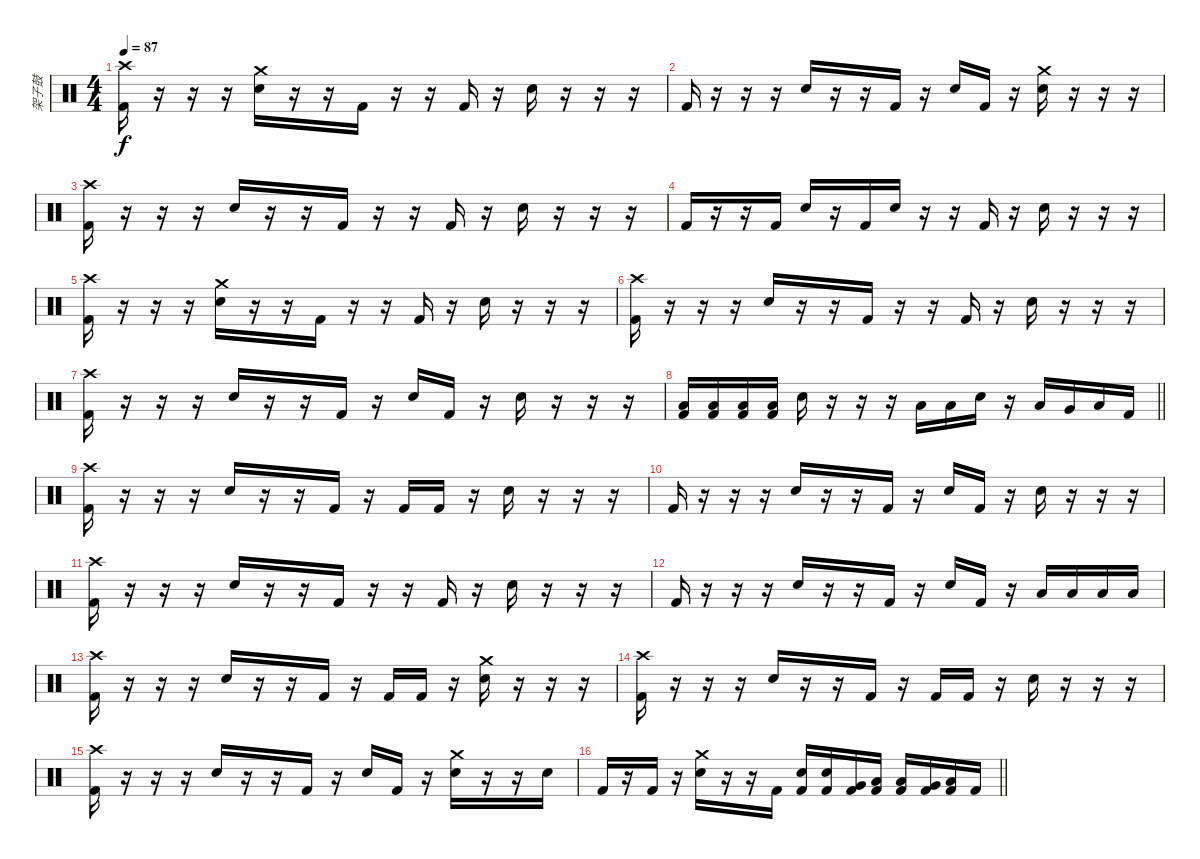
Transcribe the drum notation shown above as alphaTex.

\track ("架子鼓" "架子鼓") {instrument percussion}
\staff {score}
\articulation defaults
\ts (4 4)
\section ("" "")
\tempo 87
\clef neutral
\ks c
("Crash high (hit)" "Kick (hit) 2").16{dy f} r.16 r.16 r.16 ("Crash medium (hit)" "Electric Snare (hit)").16 r.16 r.16 "Kick (hit) 2".16 r.16 r.16 "Kick (hit) 2".16 r.16 "Electric Snare (hit)".16 r.16 r.16 r.16 |
"Kick (hit) 2".16 r.16 r.16 r.16 "Electric Snare (hit)".16 r.16 r.16 "Kick (hit) 2".16 r.16 "Electric Snare (hit)".16 "Kick (hit) 2".16 r.16 ("Crash medium (hit)" "Electric Snare (hit)").16 r.16 r.16 r.16 |
("Crash high (hit)" "Kick (hit) 2").16 r.16 r.16 r.16 "Electric Snare (hit)".16 r.16 r.16 "Kick (hit) 2".16 r.16 r.16 "Kick (hit) 2".16 r.16 "Electric Snare (hit)".16 r.16 r.16 r.16 |
"Kick (hit) 2".16 r.16 r.16 "Kick (hit) 2".16 "Electric Snare (hit)".16 r.16 "Kick (hit) 2".16 "Electric Snare (hit)".16 r.16 r.16 "Kick (hit) 2".16 r.16 "Electric Snare (hit)".16 r.16 r.16 r.16 |
("Crash high (hit)" "Kick (hit) 2").16 r.16 r.16 r.16 ("Crash medium (hit)" "Electric Snare (hit)").16 r.16 r.16 "Kick (hit) 2".16 r.16 r.16 "Kick (hit) 2".16 r.16 "Electric Snare (hit)".16 r.16 r.16 r.16 |
("Crash high (hit)" "Kick (hit) 2").16 r.16 r.16 r.16 "Electric Snare (hit)".16 r.16 r.16 "Kick (hit) 2".16 r.16 r.16 "Kick (hit) 2".16 r.16 "Electric Snare (hit)".16 r.16 r.16 r.16 |
("Crash high (hit)" "Kick (hit) 2").16 r.16 r.16 r.16 "Electric Snare (hit)".16 r.16 r.16 "Kick (hit) 2".16 r.16 "Electric Snare (hit)".16 "Kick (hit) 2".16 r.16 "Electric Snare (hit)".16 r.16 r.16 r.16 |
\barLineRight lightlight
("Low Tom (hit)" "Kick (hit) 2").16 ("Low Tom (hit)" "Kick (hit) 2").16 ("Low Tom (hit)" "Kick (hit) 2").16 ("Low Tom (hit)" "Kick (hit) 2").16 "Electric Snare (hit)".16 r.16 r.16 r.16 "Low Tom (hit)".16 "Low Tom (hit)".16 "Electric Snare (hit)".16 r.16 "Low Tom (hit)".16 "Very Low Tom (hit)".16 "Low Floor Tom (hit)".16 "Kick (hit) 2".16 |
("Crash high (hit)" "Kick (hit) 2").16 r.16 r.16 r.16 "Electric Snare (hit)".16 r.16 r.16 "Kick (hit) 2".16 r.16 "Kick (hit) 2".16 "Kick (hit) 2".16 r.16 "Electric Snare (hit)".16 r.16 r.16 r.16 |
"Kick (hit) 2".16 r.16 r.16 r.16 "Electric Snare (hit)".16 r.16 r.16 "Kick (hit) 2".16 r.16 "Electric Snare (hit)".16 "Kick (hit) 2".16 r.16 "Electric Snare (hit)".16 r.16 r.16 r.16 |
("Crash high (hit)" "Kick (hit) 2").16 r.16 r.16 r.16 "Electric Snare (hit)".16 r.16 r.16 "Kick (hit) 2".16 r.16 r.16 "Kick (hit) 2".16 r.16 "Electric Snare (hit)".16 r.16 r.16 r.16 |
"Kick (hit) 2".16 r.16 r.16 r.16 "Electric Snare (hit)".16 r.16 r.16 "Kick (hit) 2".16 r.16 "Electric Snare (hit)".16 "Kick (hit) 2".16 r.16 "Low Floor Tom (hit)".16 "Low Floor Tom (hit)".16 "Low Floor Tom (hit)".16 "Low Floor Tom (hit)".16 |
("Crash high (hit)" "Kick (hit) 2").16 r.16 r.16 r.16 "Electric Snare (hit)".16 r.16 r.16 "Kick (hit) 2".16 r.16 "Kick (hit) 2".16 "Kick (hit) 2".16 r.16 ("Crash medium (hit)" "Electric Snare (hit)").16 r.16 r.16 r.16 |
("Crash high (hit)" "Kick (hit) 2").16 r.16 r.16 r.16 "Electric Snare (hit)".16 r.16 r.16 "Kick (hit) 2".16 r.16 "Kick (hit) 2".16 "Kick (hit) 2".16 r.16 "Electric Snare (hit)".16 r.16 r.16 r.16 |
("Crash high (hit)" "Kick (hit) 2").16 r.16 r.16 r.16 "Electric Snare (hit)".16 r.16 r.16 "Kick (hit) 2".16 r.16 "Electric Snare (hit)".16 "Kick (hit) 2".16 r.16 ("Crash medium (hit)" "Electric Snare (hit)").16 r.16 r.16 "Electric Snare (hit)".16 |
\barLineRight lightlight "Kick (hit) 2".16
r.16 "Kick (hit) 2".16 r.16 ("Crash medium (hit)" "Electric Snare (hit)").16 r.16 r.16 "Kick (hit) 2".16 ("Electric Snare (hit)" "Kick (hit) 2").16 ("Snare (hit) 2" "Kick (hit) 2").16 ("Very Low Tom (hit)" "Kick (hit) 2").16 ("Low Floor Tom (hit)" "Kick (hit) 2").16 ("Low Tom (hit)" "Kick (hit) 2").16 ("Very Low Tom (hit)" "Kick (hit) 2").16 ("Low Floor Tom (hit)" "Kick (hit) 2").16 "Kick (hit) 2".16
